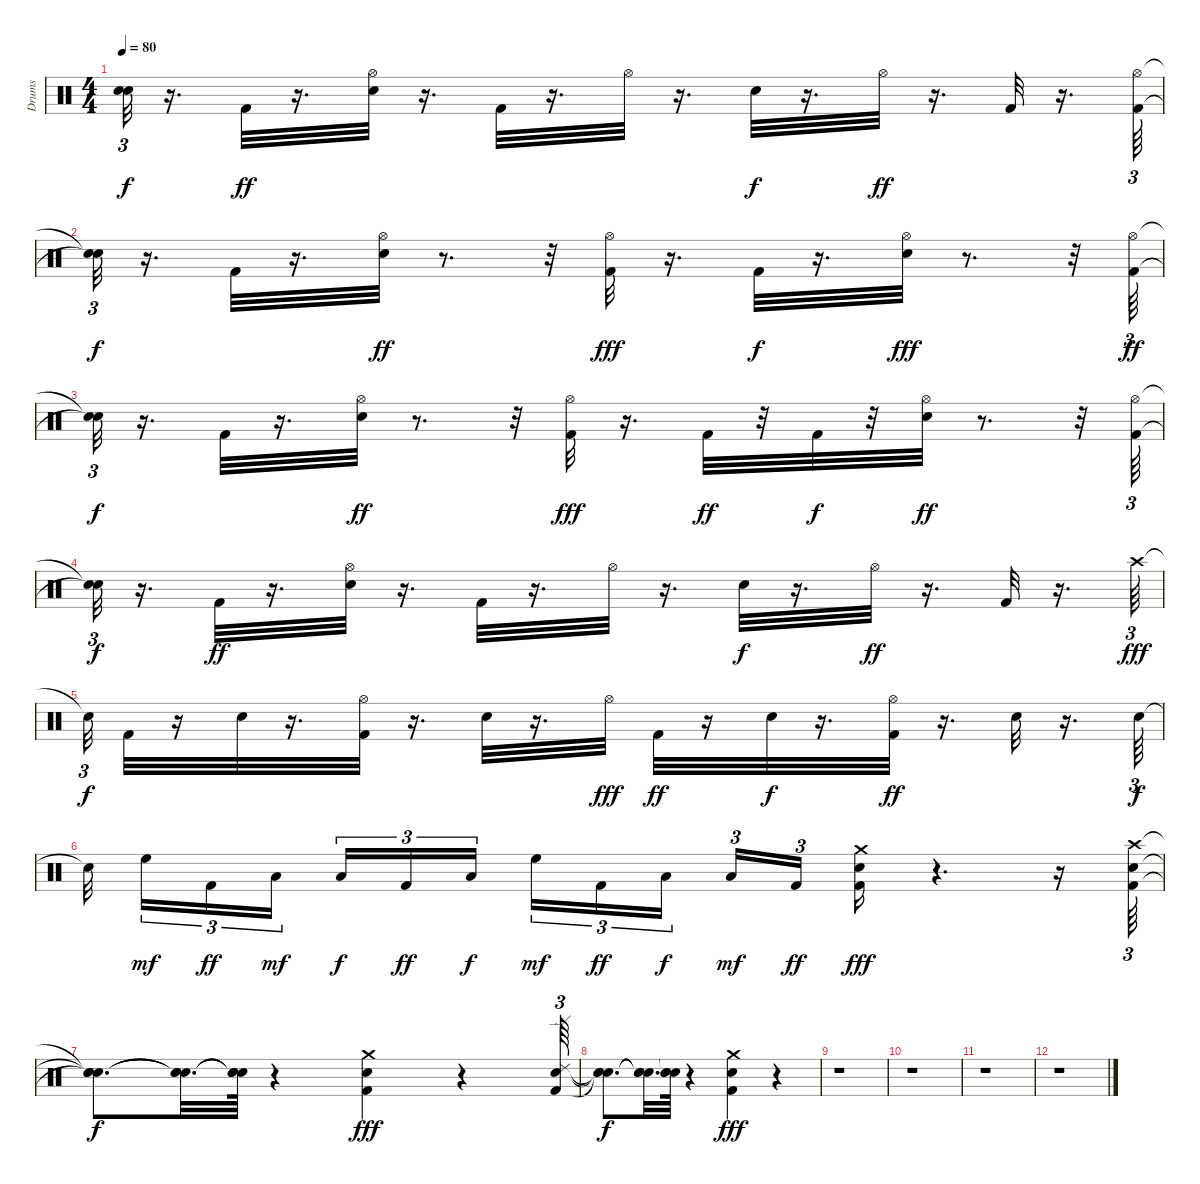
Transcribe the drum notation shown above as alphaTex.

\track ("Drums" "Drums") {instrument percussion}
\staff {score}
\articulation defaults
\ts (4 4)
\tempo 80
\clef neutral
\ks c
("Snare (hit)"{t} "Snare (hit)"{t}).32{tu (3 2) dy f} r.16{d} "Kick (hit) 2".32{dy ff} r.16{d} ("Hi-Hat (open)" "Electric Snare (hit)").32 r.16{d} "Kick (hit) 2".32 r.16{d} "Hi-Hat (open)".32 r.16{d} "Electric Snare (hit)".32{dy f} r.16{d} "Hi-Hat (open)".32{dy ff} r.16{d} "Kick (hit) 2".32 r.16{d} ("Hi-Hat (open)" "Kick (hit) 2").64{tu (3 2)} |
("Snare (hit)"{t} "Snare (hit)"{t}).32{tu (3 2) dy f} r.16{d} "Kick (hit) 2".32 r.16{d} ("Electric Snare (hit)" "Hi-Hat (open)").32{dy ff} r.8{d} r.32 ("Kick (hit) 2" "Hi-Hat (open)").32{dy fff} r.16{d} "Kick (hit) 2".32{dy f} r.16{d} ("Electric Snare (hit)" "Hi-Hat (open)").32{dy fff} r.8{d} r.32 ("Hi-Hat (open)" "Kick (hit) 2").64{tu (3 2) dy ff} |
("Snare (hit)"{t} "Snare (hit)"{t}).32{tu (3 2) dy f} r.16{d} "Kick (hit) 2".32 r.16{d} ("Electric Snare (hit)" "Hi-Hat (open)").32{dy ff} r.8{d} r.32 ("Kick (hit) 2" "Hi-Hat (open)").32{dy fff} r.16{d} "Kick (hit) 2".32{dy ff} r.32 "Kick (hit) 2".32{dy f} r.32 ("Hi-Hat (open)" "Electric Snare (hit)").32{dy ff} r.8{d} r.32 ("Hi-Hat (open)" "Kick (hit) 2").64{tu (3 2)} |
("Snare (hit)"{t} "Snare (hit)"{t}).32{tu (3 2) dy f} r.16{d} "Kick (hit) 2".32{dy ff} r.16{d} ("Hi-Hat (open)" "Electric Snare (hit)").32 r.16{d} "Kick (hit) 2".32 r.16{d} "Hi-Hat (open)".32 r.16{d} "Electric Snare (hit)".32{dy f} r.16{d} "Hi-Hat (open)".32{dy ff} r.16{d} "Kick (hit) 2".32 r.16{d} "Crash high (hit)".64{tu (3 2) dy fff} |
"Snare (hit)"{t}.32{tu (3 2) dy f} "Kick (hit) 2".32 r.16 "Electric Snare (hit)".32 r.16{d} ("Hi-Hat (open)" "Kick (hit) 2").32 r.16{d} "Electric Snare (hit)".32 r.16{d} "Hi-Hat (open)".32{dy fff} "Kick (hit) 2".32{dy ff} r.16 "Electric Snare (hit)".32{dy f} r.16{d} ("Hi-Hat (open)" "Kick (hit) 2").32{dy ff} r.16{d} "Electric Snare (hit)".32 r.16{d} "Electric Snare (hit)".64{tu (3 2) dy f} |
"Snare (hit)"{t}.32{beam splitsecondary} "High Floor Tom (hit)".16{tu (3 2) dy mf} "Kick (hit) 2".16{tu (3 2) dy ff} "Low Floor Tom (hit)".16{tu (3 2) dy mf beam splitsecondary} "Low Tom (hit)".16{tu (3 2) dy f} "Kick (hit) 2".16{tu (3 2) dy ff} "Low Floor Tom (hit)".16{tu (3 2) dy f} "High Floor Tom (hit)".16{tu (3 2) dy mf} "Kick (hit) 2".16{tu (3 2) dy ff} "Low Floor Tom (hit)".16{tu (3 2) dy f beam splitsecondary} "Low Tom (hit)".16{tu (3 2) dy mf} "Kick (hit) 2".16{tu (3 2) dy ff beam splitsecondary} ("Kick (hit) 2" "Electric Snare (hit)" "Crash medium (hit)").16{dy fff} r.4{d} r.16 ("Kick (hit) 2" "Electric Snare (hit)" "Crash high (hit)").64{tu (3 2)} |
("Snare (hit)"{t} "Snare (hit)"{t} "Snare (hit)"{t}).8{d dy f} ("Snare (hit)"{t} "Snare (hit)"{t} "Snare (hit)"{t}).32{d} ("Snare (hit)"{t} "Snare (hit)"{t} "Snare (hit)"{t}).64 r.4 ("Kick (hit) 2" "Electric Snare (hit)" "Crash medium (hit)").4{dy fff} r.4 ("Kick (hit) 2" "Electric Snare (hit)" "Ride (edge) 2").64{tu (3 2)} |
("Snare (hit)"{t} "Snare (hit)"{t} "Snare (hit)"{t}).8{d dy f} ("Snare (hit)"{t} "Snare (hit)"{t} "Snare (hit)"{t}).32{d} ("Snare (hit)"{t} "Snare (hit)"{t} "Snare (hit)"{t}).64 r.4 ("Kick (hit) 2" "Electric Snare (hit)" "Crash medium (hit)").4{dy fff} r.4 |
r.1 |
r.1 |
r.1 |
r.1
